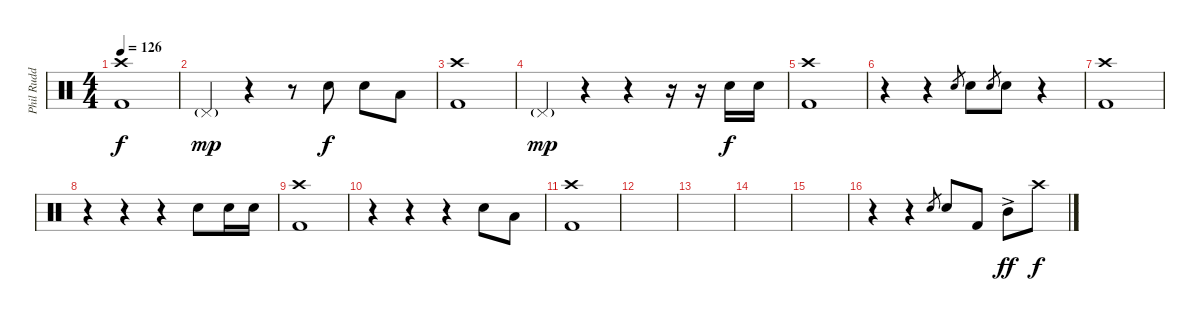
\track ("Phil Rudd" "Phil Rudd") {instrument percussion}
\staff {score}
\articulation defaults
\ts (4 4)
\tempo 126
\clef neutral
\ks c
("Crash high (hit)" "Kick (hit) 2").1{dy f} |
"Pedal Hi-Hat (hit)"{g}.4{dy mp} r.4 r.8 "Electric Snare (hit)".8{dy f} "Snare (hit) 2".8 "Low Tom (hit)".8 |
("Crash high (hit)" "Kick (hit) 2").1 |
"Pedal Hi-Hat (hit)"{g}.4{dy mp} r.4 r.4 r.16 r.16 "Snare (hit) 2".16{dy f} "Snare (hit) 2".16 |
("Crash high (hit)" "Kick (hit) 2").1 |
r.4 r.4 "Snare (hit) 2".8{gr} "Snare (hit) 2".8 "Snare (hit) 2".8{gr} "Snare (hit) 2".8 r.4 |
("Crash high (hit)" "Kick (hit) 2").1 |
r.4 r.4 r.4 "Snare (hit) 2".8 "Snare (hit) 2".16 "Snare (hit) 2".16 |
("Crash high (hit)" "Kick (hit) 2").1 |
r.4 r.4 r.4 "Snare (hit) 2".8 "Low Tom (hit)".8 |
("Crash high (hit)" "Kick (hit) 2").1 |
|
|
|
|
r.4 r.4 "Snare (hit) 2".8{gr} "Snare (hit) 2".8 "Kick (hit) 2".8 "Mid Tom (hit)"{ac}.8{dy ff} "Crash high (hit)".8{dy f}
